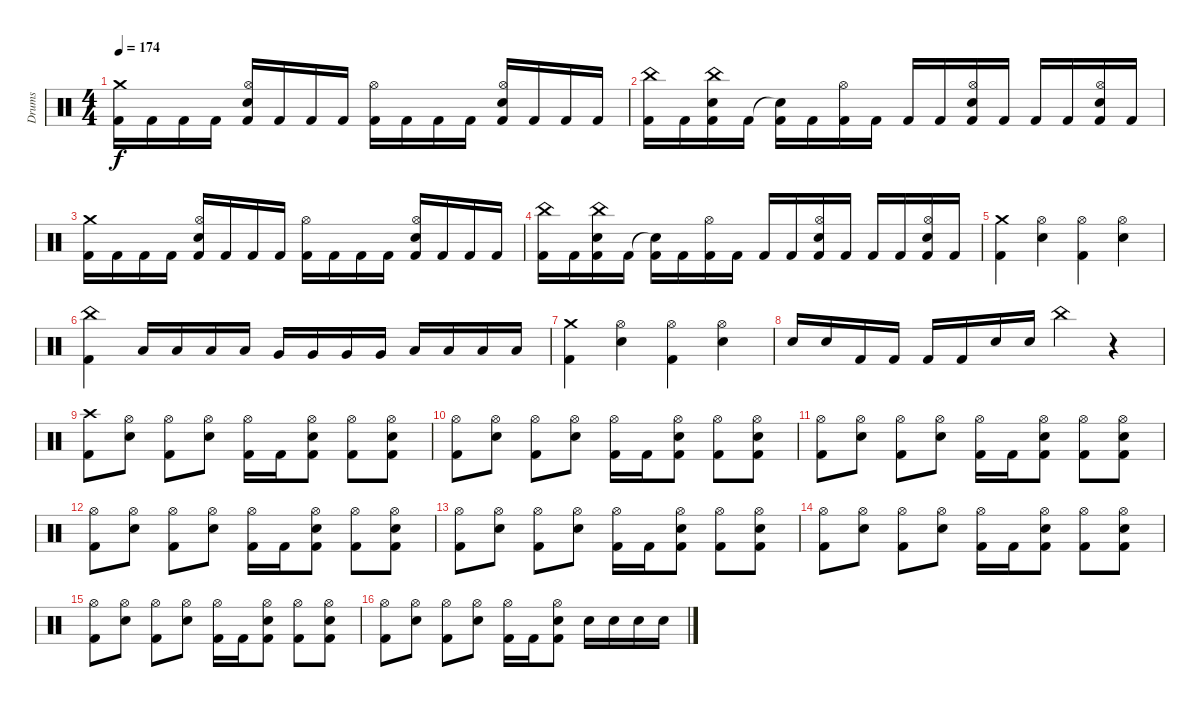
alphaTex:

\track ("Drums" "Drums") {instrument percussion}
\staff {score}
\articulation defaults
\ts (4 4)
\tempo 174
\clef neutral
\ks c
("Crash medium (hit)" "Kick (hit) 2").16{dy f} "Kick (hit) 2".16 "Kick (hit) 2".16 "Kick (hit) 2".16 ("Hi-Hat (open)" "Kick (hit) 2" "Electric Snare (hit)").16 "Kick (hit) 2".16 "Kick (hit) 2".16 "Kick (hit) 2".16 ("Hi-Hat (open)" "Kick (hit) 2").16 "Kick (hit) 2".16 "Kick (hit) 2".16 "Kick (hit) 2".16 ("Hi-Hat (open)" "Kick (hit) 2" "Electric Snare (hit)").16 "Kick (hit) 2".16 "Kick (hit) 2".16 "Kick (hit) 2".16 |
("China (hit)" "Kick (hit) 2").16 "Kick (hit) 2".16 ("China (hit)" "Kick (hit) 2" "Electric Snare (hit)").16 "Kick (hit) 2".16 ("Snare (hit)"{t} "Kick (hit) 2").16 "Kick (hit) 2".16 ("Hi-Hat (open)" "Kick (hit) 2").16 "Kick (hit) 2".16 "Kick (hit) 2".16 "Kick (hit) 2".16 ("Hi-Hat (open)" "Kick (hit) 2" "Electric Snare (hit)").16 "Kick (hit) 2".16 "Kick (hit) 2".16 "Kick (hit) 2".16 ("Hi-Hat (open)" "Kick (hit) 2" "Electric Snare (hit)").16 "Kick (hit) 2".16 |
("Crash medium (hit)" "Kick (hit) 2").16 "Kick (hit) 2".16 "Kick (hit) 2".16 "Kick (hit) 2".16 ("Hi-Hat (open)" "Kick (hit) 2" "Electric Snare (hit)").16 "Kick (hit) 2".16 "Kick (hit) 2".16 "Kick (hit) 2".16 ("Hi-Hat (open)" "Kick (hit) 2").16 "Kick (hit) 2".16 "Kick (hit) 2".16 "Kick (hit) 2".16 ("Hi-Hat (open)" "Kick (hit) 2" "Electric Snare (hit)").16 "Kick (hit) 2".16 "Kick (hit) 2".16 "Kick (hit) 2".16 |
("China (hit)" "Kick (hit) 2").16 "Kick (hit) 2".16 ("China (hit)" "Kick (hit) 2" "Electric Snare (hit)").16 "Kick (hit) 2".16 ("Snare (hit)"{t} "Kick (hit) 2").16 "Kick (hit) 2".16 ("Hi-Hat (open)" "Kick (hit) 2").16 "Kick (hit) 2".16 "Kick (hit) 2".16 "Kick (hit) 2".16 ("Hi-Hat (open)" "Kick (hit) 2" "Electric Snare (hit)").16 "Kick (hit) 2".16 "Kick (hit) 2".16 "Kick (hit) 2".16 ("Hi-Hat (open)" "Kick (hit) 2" "Electric Snare (hit)").16 "Kick (hit) 2".16 |
("Crash medium (hit)" "Kick (hit) 2").4 ("Hi-Hat (open)" "Electric Snare (hit)").4 ("Hi-Hat (open)" "Kick (hit) 2").4 ("Hi-Hat (open)" "Electric Snare (hit)").4 |
("China (hit)" "Kick (hit) 2").4 "Low Tom (hit)".16 "Low Tom (hit)".16 "Low Tom (hit)".16 "Low Tom (hit)".16 "Very Low Tom (hit)".16 "Very Low Tom (hit)".16 "Very Low Tom (hit)".16 "Very Low Tom (hit)".16 "Low Floor Tom (hit)".16 "Low Floor Tom (hit)".16 "Low Floor Tom (hit)".16 "Low Floor Tom (hit)".16 |
("Crash medium (hit)" "Kick (hit) 2").4 ("Hi-Hat (open)" "Electric Snare (hit)").4 ("Hi-Hat (open)" "Kick (hit) 2").4 ("Hi-Hat (open)" "Electric Snare (hit)").4 |
"Electric Snare (hit)".16 "Electric Snare (hit)".16 "Kick (hit) 2".16 "Kick (hit) 2".16 "Kick (hit) 2".16 "Kick (hit) 2".16 "Electric Snare (hit)".16 "Electric Snare (hit)".16 "China (hit)".4 r.4 |
("Crash high (hit)" "Kick (hit) 2").8 ("Hi-Hat (open)" "Electric Snare (hit)").8 ("Hi-Hat (open)" "Kick (hit) 2").8 ("Hi-Hat (open)" "Electric Snare (hit)").8 ("Hi-Hat (open)" "Kick (hit) 2").16 "Kick (hit) 2".16 ("Hi-Hat (open)" "Electric Snare (hit)" "Kick (hit) 2").8 ("Hi-Hat (open)" "Kick (hit) 2").8 ("Hi-Hat (open)" "Electric Snare (hit)" "Kick (hit) 2").8 |
("Hi-Hat (open)" "Kick (hit) 2").8 ("Hi-Hat (open)" "Electric Snare (hit)").8 ("Hi-Hat (open)" "Kick (hit) 2").8 ("Hi-Hat (open)" "Electric Snare (hit)").8 ("Hi-Hat (open)" "Kick (hit) 2").16 "Kick (hit) 2".16 ("Hi-Hat (open)" "Electric Snare (hit)" "Kick (hit) 2").8 ("Hi-Hat (open)" "Kick (hit) 2").8 ("Hi-Hat (open)" "Electric Snare (hit)" "Kick (hit) 2").8 |
("Hi-Hat (open)" "Kick (hit) 2").8 ("Hi-Hat (open)" "Electric Snare (hit)").8 ("Hi-Hat (open)" "Kick (hit) 2").8 ("Hi-Hat (open)" "Electric Snare (hit)").8 ("Hi-Hat (open)" "Kick (hit) 2").16 "Kick (hit) 2".16 ("Hi-Hat (open)" "Electric Snare (hit)" "Kick (hit) 2").8 ("Hi-Hat (open)" "Kick (hit) 2").8 ("Hi-Hat (open)" "Electric Snare (hit)" "Kick (hit) 2").8 |
("Hi-Hat (open)" "Kick (hit) 2").8 ("Hi-Hat (open)" "Electric Snare (hit)").8 ("Hi-Hat (open)" "Kick (hit) 2").8 ("Hi-Hat (open)" "Electric Snare (hit)").8 ("Hi-Hat (open)" "Kick (hit) 2").16 "Kick (hit) 2".16 ("Hi-Hat (open)" "Electric Snare (hit)" "Kick (hit) 2").8 ("Hi-Hat (open)" "Kick (hit) 2").8 ("Hi-Hat (open)" "Electric Snare (hit)" "Kick (hit) 2").8 |
("Hi-Hat (open)" "Kick (hit) 2").8 ("Hi-Hat (open)" "Electric Snare (hit)").8 ("Hi-Hat (open)" "Kick (hit) 2").8 ("Hi-Hat (open)" "Electric Snare (hit)").8 ("Hi-Hat (open)" "Kick (hit) 2").16 "Kick (hit) 2".16 ("Hi-Hat (open)" "Electric Snare (hit)" "Kick (hit) 2").8 ("Hi-Hat (open)" "Kick (hit) 2").8 ("Hi-Hat (open)" "Electric Snare (hit)" "Kick (hit) 2").8 |
("Hi-Hat (open)" "Kick (hit) 2").8 ("Hi-Hat (open)" "Electric Snare (hit)").8 ("Hi-Hat (open)" "Kick (hit) 2").8 ("Hi-Hat (open)" "Electric Snare (hit)").8 ("Hi-Hat (open)" "Kick (hit) 2").16 "Kick (hit) 2".16 ("Hi-Hat (open)" "Electric Snare (hit)" "Kick (hit) 2").8 ("Hi-Hat (open)" "Kick (hit) 2").8 ("Hi-Hat (open)" "Electric Snare (hit)" "Kick (hit) 2").8 |
("Hi-Hat (open)" "Kick (hit) 2").8 ("Hi-Hat (open)" "Electric Snare (hit)").8 ("Hi-Hat (open)" "Kick (hit) 2").8 ("Hi-Hat (open)" "Electric Snare (hit)").8 ("Hi-Hat (open)" "Kick (hit) 2").16 "Kick (hit) 2".16 ("Hi-Hat (open)" "Electric Snare (hit)" "Kick (hit) 2").8 ("Hi-Hat (open)" "Kick (hit) 2").8 ("Hi-Hat (open)" "Electric Snare (hit)" "Kick (hit) 2").8 |
("Hi-Hat (open)" "Kick (hit) 2").8 ("Hi-Hat (open)" "Electric Snare (hit)").8 ("Hi-Hat (open)" "Kick (hit) 2").8 ("Hi-Hat (open)" "Electric Snare (hit)").8 ("Hi-Hat (open)" "Kick (hit) 2").16 "Kick (hit) 2".16 ("Hi-Hat (open)" "Electric Snare (hit)" "Kick (hit) 2").8 "Electric Snare (hit)".16 "Electric Snare (hit)".16 "Electric Snare (hit)".16 "Electric Snare (hit)".16
